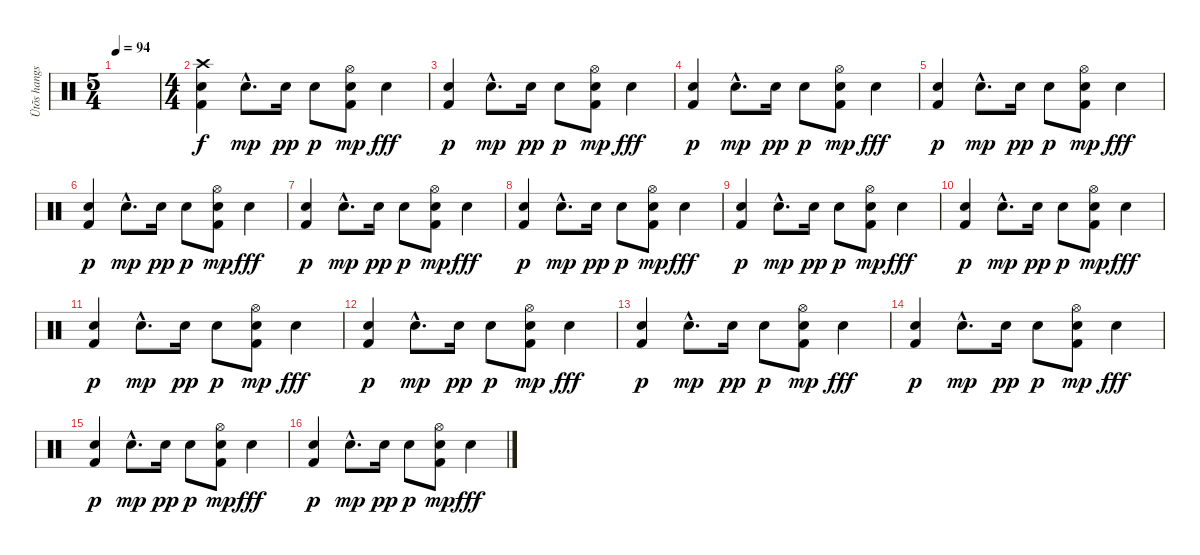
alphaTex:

\track ("Ütõs hangszer" "Ütõs hangs") {instrument percussion}
\staff {score}
\articulation defaults
\ts (5 4)
\tempo 94
\clef neutral
\ks c
|
\ts (4 4)
("Electric Snare (hit)" "Kick (hit) 2" "Crash high (hit)").4 "Electric Snare (hit)"{hac}.8{d dy mp} "Electric Snare (hit)".16{dy pp} "Electric Snare (hit)".8{dy p} ("Electric Snare (hit)" "Kick (hit) 2" "Hi-Hat (open)").8{dy mp} "Electric Snare (hit)".4{dy fff} |
("Electric Snare (hit)" "Kick (hit) 2").4{dy p} "Electric Snare (hit)"{hac}.8{d dy mp} "Electric Snare (hit)".16{dy pp} "Electric Snare (hit)".8{dy p} ("Electric Snare (hit)" "Kick (hit) 2" "Hi-Hat (open)").8{dy mp} "Electric Snare (hit)".4{dy fff} |
("Electric Snare (hit)" "Kick (hit) 2").4{dy p} "Electric Snare (hit)"{hac}.8{d dy mp} "Electric Snare (hit)".16{dy pp} "Electric Snare (hit)".8{dy p} ("Electric Snare (hit)" "Kick (hit) 2" "Hi-Hat (open)").8{dy mp} "Electric Snare (hit)".4{dy fff} |
("Electric Snare (hit)" "Kick (hit) 2").4{dy p} "Electric Snare (hit)"{hac}.8{d dy mp} "Electric Snare (hit)".16{dy pp} "Electric Snare (hit)".8{dy p} ("Electric Snare (hit)" "Kick (hit) 2" "Hi-Hat (open)").8{dy mp} "Electric Snare (hit)".4{dy fff} |
("Electric Snare (hit)" "Kick (hit) 2").4{dy p} "Electric Snare (hit)"{hac}.8{d dy mp} "Electric Snare (hit)".16{dy pp} "Electric Snare (hit)".8{dy p} ("Electric Snare (hit)" "Kick (hit) 2" "Hi-Hat (open)").8{dy mp} "Electric Snare (hit)".4{dy fff} |
("Electric Snare (hit)" "Kick (hit) 2").4{dy p} "Electric Snare (hit)"{hac}.8{d dy mp} "Electric Snare (hit)".16{dy pp} "Electric Snare (hit)".8{dy p} ("Electric Snare (hit)" "Kick (hit) 2" "Hi-Hat (open)").8{dy mp} "Electric Snare (hit)".4{dy fff} |
("Electric Snare (hit)" "Kick (hit) 2").4{dy p} "Electric Snare (hit)"{hac}.8{d dy mp} "Electric Snare (hit)".16{dy pp} "Electric Snare (hit)".8{dy p} ("Electric Snare (hit)" "Kick (hit) 2" "Hi-Hat (open)").8{dy mp} "Electric Snare (hit)".4{dy fff} |
("Electric Snare (hit)" "Kick (hit) 2").4{dy p} "Electric Snare (hit)"{hac}.8{d dy mp} "Electric Snare (hit)".16{dy pp} "Electric Snare (hit)".8{dy p} ("Electric Snare (hit)" "Kick (hit) 2" "Hi-Hat (open)").8{dy mp} "Electric Snare (hit)".4{dy fff} |
("Electric Snare (hit)" "Kick (hit) 2").4{dy p} "Electric Snare (hit)"{hac}.8{d dy mp} "Electric Snare (hit)".16{dy pp} "Electric Snare (hit)".8{dy p} ("Electric Snare (hit)" "Kick (hit) 2" "Hi-Hat (open)").8{dy mp} "Electric Snare (hit)".4{dy fff} |
("Electric Snare (hit)" "Kick (hit) 2").4{dy p} "Electric Snare (hit)"{hac}.8{d dy mp} "Electric Snare (hit)".16{dy pp} "Electric Snare (hit)".8{dy p} ("Electric Snare (hit)" "Kick (hit) 2" "Hi-Hat (open)").8{dy mp} "Electric Snare (hit)".4{dy fff} |
("Electric Snare (hit)" "Kick (hit) 2").4{dy p} "Electric Snare (hit)"{hac}.8{d dy mp} "Electric Snare (hit)".16{dy pp} "Electric Snare (hit)".8{dy p} ("Electric Snare (hit)" "Kick (hit) 2" "Hi-Hat (open)").8{dy mp} "Electric Snare (hit)".4{dy fff} |
("Electric Snare (hit)" "Kick (hit) 2").4{dy p} "Electric Snare (hit)"{hac}.8{d dy mp} "Electric Snare (hit)".16{dy pp} "Electric Snare (hit)".8{dy p} ("Electric Snare (hit)" "Kick (hit) 2" "Hi-Hat (open)").8{dy mp} "Electric Snare (hit)".4{dy fff} |
("Electric Snare (hit)" "Kick (hit) 2").4{dy p} "Electric Snare (hit)"{hac}.8{d dy mp} "Electric Snare (hit)".16{dy pp} "Electric Snare (hit)".8{dy p} ("Electric Snare (hit)" "Kick (hit) 2" "Hi-Hat (open)").8{dy mp} "Electric Snare (hit)".4{dy fff} |
("Electric Snare (hit)" "Kick (hit) 2").4{dy p} "Electric Snare (hit)"{hac}.8{d dy mp} "Electric Snare (hit)".16{dy pp} "Electric Snare (hit)".8{dy p} ("Electric Snare (hit)" "Kick (hit) 2" "Hi-Hat (open)").8{dy mp} "Electric Snare (hit)".4{dy fff} |
("Electric Snare (hit)" "Kick (hit) 2").4{dy p} "Electric Snare (hit)"{hac}.8{d dy mp} "Electric Snare (hit)".16{dy pp} "Electric Snare (hit)".8{dy p} ("Electric Snare (hit)" "Kick (hit) 2" "Hi-Hat (open)").8{dy mp} "Electric Snare (hit)".4{dy fff}
